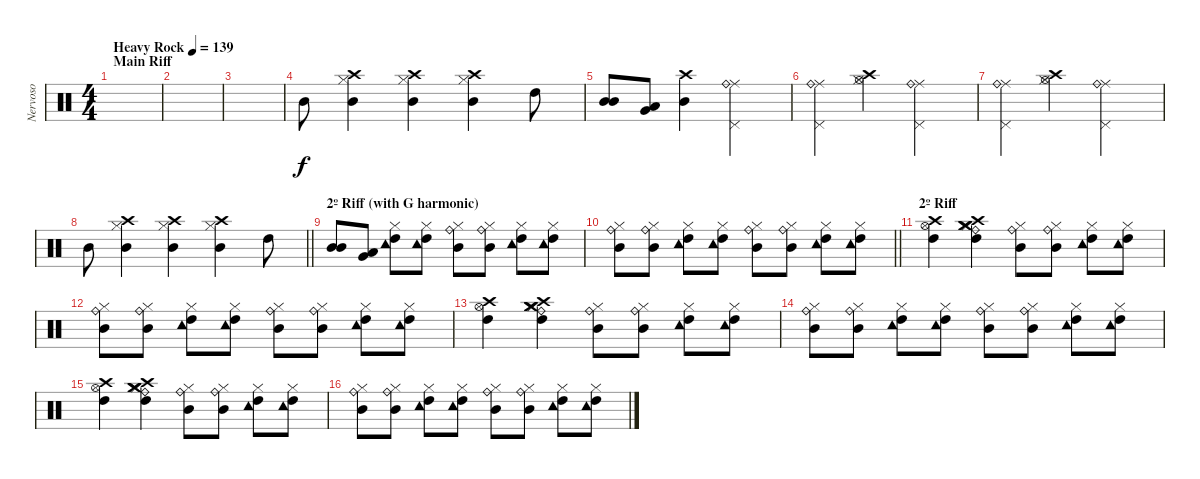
\track ("Nervoso" "Nervoso") {instrument percussion}
\staff {score}
\articulation defaults
\ts (4 4)
\section ("" "Main Riff")
\tempo (139 "Heavy Rock")
\clef neutral
\ks c
|
|
|
"Mid Tom (hit)".8 ("Mid Tom (hit)" "Hi-Hat (closed)" "Crash high (hit)").4 ("Mid Tom (hit)" "Hi-Hat (closed)" "Crash high (hit)").4 ("Mid Tom (hit)" "Hi-Hat (closed)" "Crash high (hit)").4 "High Tom (hit)".8 |
("Mid Tom (hit)" "Mid Tom (hit)").8 ("Very Low Tom (hit)" "Low Tom (hit)").8 ("Crash high (hit)" "Mid Tom (hit)").4 ("Ride (middle)" "Pedal Hi-Hat (hit)" "Ride (bell)").2 |
("Ride (middle)" "Pedal Hi-Hat (hit)" "Ride (bell)").4 ("Crash high (hit)" "Hi-Hat (closed)" "Hi-Hat (open)").4 ("Ride (middle)" "Pedal Hi-Hat (hit)" "Ride (bell)").2 |
("Ride (middle)" "Pedal Hi-Hat (hit)" "Ride (bell)").4 ("Crash high (hit)" "Hi-Hat (closed)" "Hi-Hat (open)").4 ("Ride (middle)" "Pedal Hi-Hat (hit)" "Ride (bell)").2 |
\barLineRight lightlight "Mid Tom (hit)".8
("Mid Tom (hit)" "Hi-Hat (closed)" "Crash high (hit)").4 ("Mid Tom (hit)" "Hi-Hat (closed)" "Crash high (hit)").4 ("Mid Tom (hit)" "Hi-Hat (closed)" "Crash high (hit)").4 "High Tom (hit)".8 |
\section ("" "2º Riff (with G harmonic)")
("Mid Tom (hit)" "Mid Tom (hit)").8 ("Very Low Tom (hit)" "Low Tom (hit)").8 ("High Tom (hit)" "Hi-Hat (closed)" "Tambourine (hit)").8 ("High Tom (hit)" "Hi-Hat (closed)" "Tambourine (hit)").8 ("Ride (bell)" "Mid Tom (hit)" "Hi-Hat (closed)").8 ("Ride (bell)" "Mid Tom (hit)" "Hi-Hat (closed)").8 ("High Tom (hit)" "Hi-Hat (closed)" "Tambourine (hit)").8 ("High Tom (hit)" "Hi-Hat (closed)" "Tambourine (hit)").8 |
\barLineRight lightlight
("Ride (bell)" "Mid Tom (hit)" "Hi-Hat (closed)").8 ("Ride (bell)" "Mid Tom (hit)" "Hi-Hat (closed)").8 ("High Tom (hit)" "Hi-Hat (closed)" "Tambourine (hit)").8 ("High Tom (hit)" "Hi-Hat (closed)" "Tambourine (hit)").8 ("Ride (bell)" "Mid Tom (hit)" "Hi-Hat (closed)").8 ("Ride (bell)" "Mid Tom (hit)" "Hi-Hat (closed)").8 ("High Tom (hit)" "Hi-Hat (closed)" "Tambourine (hit)").8 ("High Tom (hit)" "Hi-Hat (closed)" "Tambourine (hit)").8 |
\section ("" "2º Riff")
("Hi-Hat (open)" "Crash high (hit)" "High Tom (hit)").4 ("High Tom (hit)" "Crash high (hit)" "Crash medium (hit)" "Hi-Hat (closed)" "Ride (bell)" "Crash medium (hit)").4 ("Ride (bell)" "Mid Tom (hit)" "Hi-Hat (closed)").8 ("Ride (bell)" "Mid Tom (hit)" "Hi-Hat (closed)").8 ("High Tom (hit)" "Hi-Hat (closed)" "Tambourine (hit)").8 ("High Tom (hit)" "Hi-Hat (closed)" "Tambourine (hit)").8 |
("Ride (bell)" "Mid Tom (hit)" "Hi-Hat (closed)").8 ("Ride (bell)" "Mid Tom (hit)" "Hi-Hat (closed)").8 ("High Tom (hit)" "Hi-Hat (closed)" "Tambourine (hit)").8 ("High Tom (hit)" "Hi-Hat (closed)" "Tambourine (hit)").8 ("Ride (bell)" "Mid Tom (hit)" "Hi-Hat (closed)").8 ("Ride (bell)" "Mid Tom (hit)" "Hi-Hat (closed)").8 ("High Tom (hit)" "Hi-Hat (closed)" "Tambourine (hit)").8 ("High Tom (hit)" "Hi-Hat (closed)" "Tambourine (hit)").8 |
("Hi-Hat (open)" "Crash high (hit)" "High Tom (hit)").4 ("High Tom (hit)" "Crash high (hit)" "Crash medium (hit)" "Hi-Hat (closed)" "Ride (bell)" "Crash medium (hit)").4 ("Ride (bell)" "Mid Tom (hit)" "Hi-Hat (closed)").8 ("Ride (bell)" "Mid Tom (hit)" "Hi-Hat (closed)").8 ("High Tom (hit)" "Hi-Hat (closed)" "Tambourine (hit)").8 ("High Tom (hit)" "Hi-Hat (closed)" "Tambourine (hit)").8 |
("Ride (bell)" "Mid Tom (hit)" "Hi-Hat (closed)").8 ("Ride (bell)" "Mid Tom (hit)" "Hi-Hat (closed)").8 ("High Tom (hit)" "Hi-Hat (closed)" "Tambourine (hit)").8 ("High Tom (hit)" "Hi-Hat (closed)" "Tambourine (hit)").8 ("Ride (bell)" "Mid Tom (hit)" "Hi-Hat (closed)").8 ("Ride (bell)" "Mid Tom (hit)" "Hi-Hat (closed)").8 ("High Tom (hit)" "Hi-Hat (closed)" "Tambourine (hit)").8 ("High Tom (hit)" "Hi-Hat (closed)" "Tambourine (hit)").8 |
("Hi-Hat (open)" "Crash high (hit)" "High Tom (hit)").4 ("High Tom (hit)" "Crash high (hit)" "Crash medium (hit)" "Hi-Hat (closed)" "Ride (bell)" "Crash medium (hit)").4 ("Ride (bell)" "Mid Tom (hit)" "Hi-Hat (closed)").8 ("Ride (bell)" "Mid Tom (hit)" "Hi-Hat (closed)").8 ("High Tom (hit)" "Hi-Hat (closed)" "Tambourine (hit)").8 ("High Tom (hit)" "Hi-Hat (closed)" "Tambourine (hit)").8 |
("Ride (bell)" "Mid Tom (hit)" "Hi-Hat (closed)").8 ("Ride (bell)" "Mid Tom (hit)" "Hi-Hat (closed)").8 ("High Tom (hit)" "Hi-Hat (closed)" "Tambourine (hit)").8 ("High Tom (hit)" "Hi-Hat (closed)" "Tambourine (hit)").8 ("Ride (bell)" "Mid Tom (hit)" "Hi-Hat (closed)").8 ("Ride (bell)" "Mid Tom (hit)" "Hi-Hat (closed)").8 ("High Tom (hit)" "Hi-Hat (closed)" "Tambourine (hit)").8 ("High Tom (hit)" "Hi-Hat (closed)" "Tambourine (hit)").8
